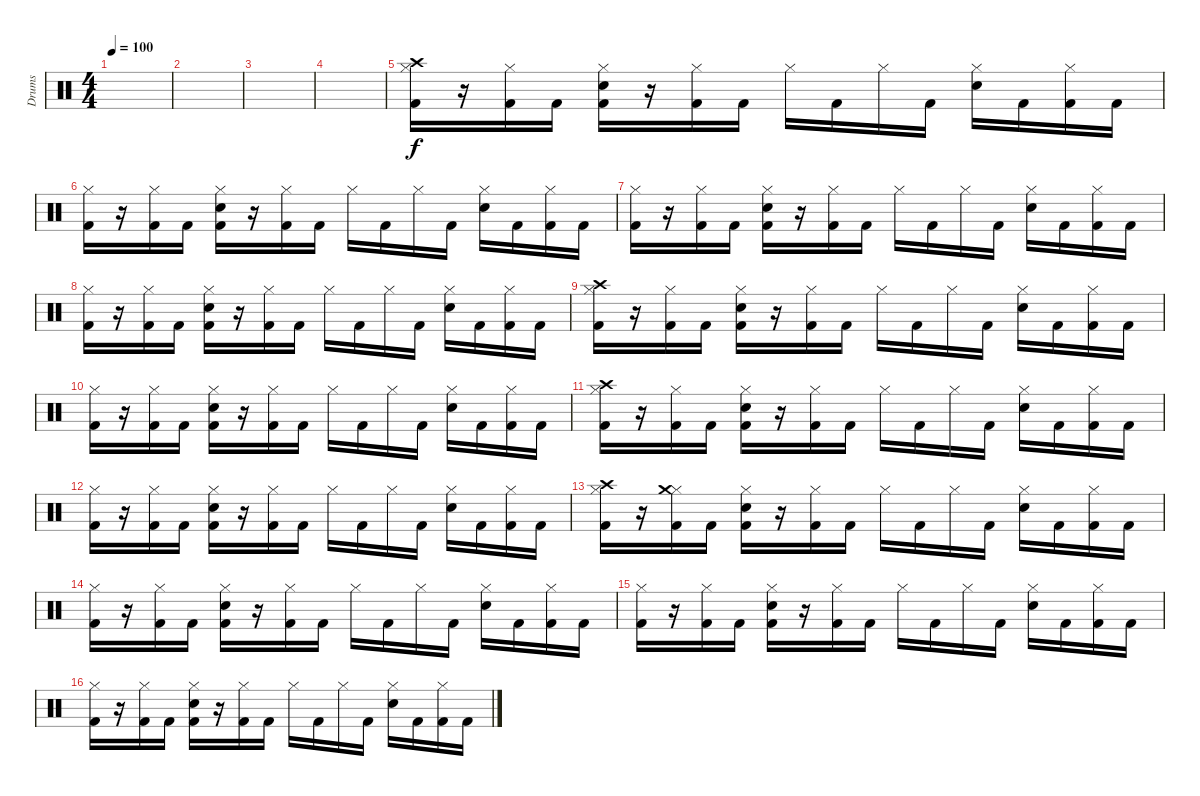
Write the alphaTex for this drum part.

\track ("Drums" "Drums") {instrument percussion}
\staff {score}
\articulation defaults
\ts (4 4)
\tempo 100
\clef neutral
\ks c
|
|
|
|
("Hi-Hat (closed)" "Crash high (hit)" "Kick (hit) 2").16 r.16 ("Hi-Hat (closed)" "Kick (hit) 2").16 "Kick (hit) 2".16 ("Hi-Hat (closed)" "Snare (hit) 2" "Kick (hit) 2").16 r.16 ("Hi-Hat (closed)" "Kick (hit) 2").16 "Kick (hit) 2".16 "Hi-Hat (closed)".16 "Kick (hit) 2".16 "Hi-Hat (closed)".16 "Kick (hit) 2".16 ("Hi-Hat (closed)" "Snare (hit) 2").16 "Kick (hit) 2".16 ("Hi-Hat (closed)" "Kick (hit) 2").16 "Kick (hit) 2".16 |
("Hi-Hat (closed)" "Kick (hit) 2").16 r.16 ("Hi-Hat (closed)" "Kick (hit) 2").16 "Kick (hit) 2".16 ("Hi-Hat (closed)" "Snare (hit) 2" "Kick (hit) 2").16 r.16 ("Hi-Hat (closed)" "Kick (hit) 2").16 "Kick (hit) 2".16 "Hi-Hat (closed)".16 "Kick (hit) 2".16 "Hi-Hat (closed)".16 "Kick (hit) 2".16 ("Hi-Hat (closed)" "Snare (hit) 2").16 "Kick (hit) 2".16 ("Hi-Hat (closed)" "Kick (hit) 2").16 "Kick (hit) 2".16 |
("Hi-Hat (closed)" "Kick (hit) 2").16 r.16 ("Hi-Hat (closed)" "Kick (hit) 2").16 "Kick (hit) 2".16 ("Hi-Hat (closed)" "Snare (hit) 2" "Kick (hit) 2").16 r.16 ("Hi-Hat (closed)" "Kick (hit) 2").16 "Kick (hit) 2".16 "Hi-Hat (closed)".16 "Kick (hit) 2".16 "Hi-Hat (closed)".16 "Kick (hit) 2".16 ("Hi-Hat (closed)" "Snare (hit) 2").16 "Kick (hit) 2".16 ("Hi-Hat (closed)" "Kick (hit) 2").16 "Kick (hit) 2".16 |
("Hi-Hat (closed)" "Kick (hit) 2").16 r.16 ("Hi-Hat (closed)" "Kick (hit) 2").16 "Kick (hit) 2".16 ("Hi-Hat (closed)" "Snare (hit) 2" "Kick (hit) 2").16 r.16 ("Hi-Hat (closed)" "Kick (hit) 2").16 "Kick (hit) 2".16 "Hi-Hat (closed)".16 "Kick (hit) 2".16 "Hi-Hat (closed)".16 "Kick (hit) 2".16 ("Hi-Hat (closed)" "Snare (hit) 2").16 "Kick (hit) 2".16 ("Hi-Hat (closed)" "Kick (hit) 2").16 "Kick (hit) 2".16 |
("Hi-Hat (closed)" "Crash high (hit)" "Kick (hit) 2").16 r.16 ("Hi-Hat (closed)" "Kick (hit) 2").16 "Kick (hit) 2".16 ("Hi-Hat (closed)" "Snare (hit) 2" "Kick (hit) 2").16 r.16 ("Hi-Hat (closed)" "Kick (hit) 2").16 "Kick (hit) 2".16 "Hi-Hat (closed)".16 "Kick (hit) 2".16 "Hi-Hat (closed)".16 "Kick (hit) 2".16 ("Hi-Hat (closed)" "Snare (hit) 2").16 "Kick (hit) 2".16 ("Hi-Hat (closed)" "Kick (hit) 2").16 "Kick (hit) 2".16 |
("Hi-Hat (closed)" "Kick (hit) 2").16 r.16 ("Hi-Hat (closed)" "Kick (hit) 2").16 "Kick (hit) 2".16 ("Hi-Hat (closed)" "Snare (hit) 2" "Kick (hit) 2").16 r.16 ("Hi-Hat (closed)" "Kick (hit) 2").16 "Kick (hit) 2".16 "Hi-Hat (closed)".16 "Kick (hit) 2".16 "Hi-Hat (closed)".16 "Kick (hit) 2".16 ("Hi-Hat (closed)" "Snare (hit) 2").16 "Kick (hit) 2".16 ("Hi-Hat (closed)" "Kick (hit) 2").16 "Kick (hit) 2".16 |
("Hi-Hat (closed)" "Crash high (hit)" "Kick (hit) 2").16 r.16 ("Hi-Hat (closed)" "Kick (hit) 2").16 "Kick (hit) 2".16 ("Hi-Hat (closed)" "Snare (hit) 2" "Kick (hit) 2").16 r.16 ("Hi-Hat (closed)" "Kick (hit) 2").16 "Kick (hit) 2".16 "Hi-Hat (closed)".16 "Kick (hit) 2".16 "Hi-Hat (closed)".16 "Kick (hit) 2".16 ("Hi-Hat (closed)" "Snare (hit) 2").16 "Kick (hit) 2".16 ("Hi-Hat (closed)" "Kick (hit) 2").16 "Kick (hit) 2".16 |
("Hi-Hat (closed)" "Kick (hit) 2").16 r.16 ("Hi-Hat (closed)" "Kick (hit) 2").16 "Kick (hit) 2".16 ("Hi-Hat (closed)" "Snare (hit) 2" "Kick (hit) 2").16 r.16 ("Hi-Hat (closed)" "Kick (hit) 2").16 "Kick (hit) 2".16 "Hi-Hat (closed)".16 "Kick (hit) 2".16 "Hi-Hat (closed)".16 "Kick (hit) 2".16 ("Hi-Hat (closed)" "Snare (hit) 2").16 "Kick (hit) 2".16 ("Hi-Hat (closed)" "Kick (hit) 2").16 "Kick (hit) 2".16 |
("Hi-Hat (closed)" "Crash high (hit)" "Kick (hit) 2").16 r.16 ("Hi-Hat (closed)" "Crash medium (hit)" "Kick (hit) 2").16 "Kick (hit) 2".16 ("Hi-Hat (closed)" "Snare (hit) 2" "Kick (hit) 2").16 r.16 ("Hi-Hat (closed)" "Kick (hit) 2").16 "Kick (hit) 2".16 "Hi-Hat (closed)".16 "Kick (hit) 2".16 "Hi-Hat (closed)".16 "Kick (hit) 2".16 ("Hi-Hat (closed)" "Snare (hit) 2").16 "Kick (hit) 2".16 ("Hi-Hat (closed)" "Kick (hit) 2").16 "Kick (hit) 2".16 |
("Hi-Hat (closed)" "Kick (hit) 2").16 r.16 ("Hi-Hat (closed)" "Kick (hit) 2").16 "Kick (hit) 2".16 ("Hi-Hat (closed)" "Snare (hit) 2" "Kick (hit) 2").16 r.16 ("Hi-Hat (closed)" "Kick (hit) 2").16 "Kick (hit) 2".16 "Hi-Hat (closed)".16 "Kick (hit) 2".16 "Hi-Hat (closed)".16 "Kick (hit) 2".16 ("Hi-Hat (closed)" "Snare (hit) 2").16 "Kick (hit) 2".16 ("Hi-Hat (closed)" "Kick (hit) 2").16 "Kick (hit) 2".16 |
("Hi-Hat (closed)" "Kick (hit) 2").16 r.16 ("Hi-Hat (closed)" "Kick (hit) 2").16 "Kick (hit) 2".16 ("Hi-Hat (closed)" "Snare (hit) 2" "Kick (hit) 2").16 r.16 ("Hi-Hat (closed)" "Kick (hit) 2").16 "Kick (hit) 2".16 "Hi-Hat (closed)".16 "Kick (hit) 2".16 "Hi-Hat (closed)".16 "Kick (hit) 2".16 ("Hi-Hat (closed)" "Snare (hit) 2").16 "Kick (hit) 2".16 ("Hi-Hat (closed)" "Kick (hit) 2").16 "Kick (hit) 2".16 |
("Hi-Hat (closed)" "Kick (hit) 2").16 r.16 ("Hi-Hat (closed)" "Kick (hit) 2").16 "Kick (hit) 2".16 ("Hi-Hat (closed)" "Snare (hit) 2" "Kick (hit) 2").16 r.16 ("Hi-Hat (closed)" "Kick (hit) 2").16 "Kick (hit) 2".16 "Hi-Hat (closed)".16 "Kick (hit) 2".16 "Hi-Hat (closed)".16 "Kick (hit) 2".16 ("Hi-Hat (closed)" "Snare (hit) 2").16 "Kick (hit) 2".16 ("Hi-Hat (closed)" "Kick (hit) 2").16 "Kick (hit) 2".16
